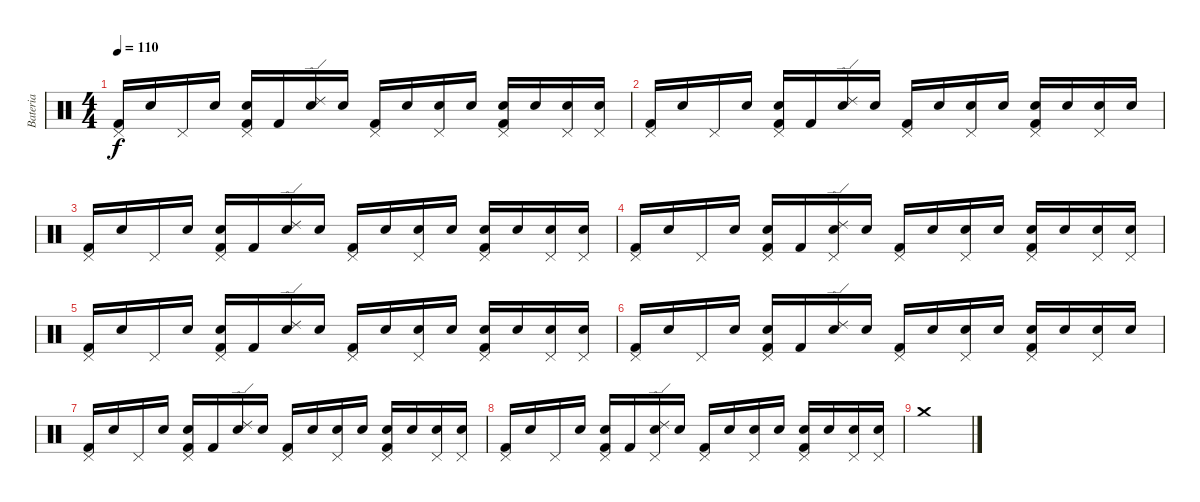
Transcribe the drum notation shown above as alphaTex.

\track ("Bateria" "Bateria") {instrument percussion}
\staff {score}
\articulation defaults
\ts (4 4)
\tempo 110
\clef neutral
\ks c
("Kick (hit) 2" "Pedal Hi-Hat (hit)").16{dy f} "Snare (hit)".16 "Pedal Hi-Hat (hit)".16 "Snare (hit)".16 ("Kick (hit) 2" "Pedal Hi-Hat (hit)" "Electric Snare (hit)").16 "Kick (hit) 2".16 ("Snare (hit)" "Ride (edge) 2").16 "Snare (hit)".16 ("Kick (hit) 2" "Pedal Hi-Hat (hit)").16 "Snare (hit)".16 ("Snare (hit)" "Pedal Hi-Hat (hit)").16 "Snare (hit)".16 ("Kick (hit) 2" "Pedal Hi-Hat (hit)" "Electric Snare (hit)").16 "Snare (hit)".16 ("Snare (hit)" "Pedal Hi-Hat (hit)").16 ("Snare (hit)" "Pedal Hi-Hat (hit)").16 |
("Kick (hit) 2" "Pedal Hi-Hat (hit)").16 "Snare (hit)".16 "Pedal Hi-Hat (hit)".16 "Snare (hit)".16 ("Kick (hit) 2" "Pedal Hi-Hat (hit)" "Electric Snare (hit)").16 "Kick (hit) 2".16 ("Snare (hit)" "Ride (edge) 2").16 "Snare (hit)".16 ("Kick (hit) 2" "Pedal Hi-Hat (hit)").16 "Snare (hit)".16 ("Snare (hit)" "Pedal Hi-Hat (hit)").16 "Snare (hit)".16 ("Kick (hit) 2" "Pedal Hi-Hat (hit)" "Electric Snare (hit)").16 "Snare (hit)".16 ("Snare (hit)" "Pedal Hi-Hat (hit)").16 "Snare (hit)".16 |
("Kick (hit) 2" "Pedal Hi-Hat (hit)").16 "Snare (hit)".16 "Pedal Hi-Hat (hit)".16 "Snare (hit)".16 ("Kick (hit) 2" "Pedal Hi-Hat (hit)" "Electric Snare (hit)").16 "Kick (hit) 2".16 ("Snare (hit)" "Ride (edge) 2").16 "Snare (hit)".16 ("Kick (hit) 2" "Pedal Hi-Hat (hit)").16 "Snare (hit)".16 ("Snare (hit)" "Pedal Hi-Hat (hit)").16 "Snare (hit)".16 ("Kick (hit) 2" "Pedal Hi-Hat (hit)" "Electric Snare (hit)").16 "Snare (hit)".16 ("Snare (hit)" "Pedal Hi-Hat (hit)").16 ("Snare (hit)" "Pedal Hi-Hat (hit)").16 |
("Kick (hit) 2" "Pedal Hi-Hat (hit)").16 "Snare (hit)".16 "Pedal Hi-Hat (hit)".16 "Snare (hit)".16 ("Kick (hit) 2" "Pedal Hi-Hat (hit)" "Electric Snare (hit)").16 "Kick (hit) 2".16 ("Snare (hit)" "Pedal Hi-Hat (hit)" "Ride (edge) 2").16 "Snare (hit)".16 ("Kick (hit) 2" "Pedal Hi-Hat (hit)").16 "Snare (hit)".16 ("Snare (hit)" "Pedal Hi-Hat (hit)").16 "Snare (hit)".16 ("Kick (hit) 2" "Pedal Hi-Hat (hit)" "Electric Snare (hit)").16 "Snare (hit)".16 ("Snare (hit)" "Pedal Hi-Hat (hit)").16 ("Snare (hit)" "Pedal Hi-Hat (hit)").16 |
("Kick (hit) 2" "Pedal Hi-Hat (hit)").16 "Snare (hit)".16 "Pedal Hi-Hat (hit)".16 "Snare (hit)".16 ("Kick (hit) 2" "Pedal Hi-Hat (hit)" "Electric Snare (hit)").16 "Kick (hit) 2".16 ("Snare (hit)" "Ride (edge) 2").16 "Snare (hit)".16 ("Kick (hit) 2" "Pedal Hi-Hat (hit)").16 "Snare (hit)".16 ("Snare (hit)" "Pedal Hi-Hat (hit)").16 "Snare (hit)".16 ("Kick (hit) 2" "Pedal Hi-Hat (hit)" "Electric Snare (hit)").16 "Snare (hit)".16 ("Snare (hit)" "Pedal Hi-Hat (hit)").16 ("Snare (hit)" "Pedal Hi-Hat (hit)").16 |
("Kick (hit) 2" "Pedal Hi-Hat (hit)").16 "Snare (hit)".16 "Pedal Hi-Hat (hit)".16 "Snare (hit)".16 ("Kick (hit) 2" "Pedal Hi-Hat (hit)" "Electric Snare (hit)").16 "Kick (hit) 2".16 ("Snare (hit)" "Ride (edge) 2").16 "Snare (hit)".16 ("Kick (hit) 2" "Pedal Hi-Hat (hit)").16 "Snare (hit)".16 ("Snare (hit)" "Pedal Hi-Hat (hit)").16 "Snare (hit)".16 ("Kick (hit) 2" "Pedal Hi-Hat (hit)" "Electric Snare (hit)").16 "Snare (hit)".16 ("Snare (hit)" "Pedal Hi-Hat (hit)").16 "Snare (hit)".16 |
("Kick (hit) 2" "Pedal Hi-Hat (hit)").16 "Snare (hit)".16 "Pedal Hi-Hat (hit)".16 "Snare (hit)".16 ("Kick (hit) 2" "Pedal Hi-Hat (hit)" "Electric Snare (hit)").16 "Kick (hit) 2".16 ("Snare (hit)" "Ride (edge) 2").16 "Snare (hit)".16 ("Kick (hit) 2" "Pedal Hi-Hat (hit)").16 "Snare (hit)".16 ("Snare (hit)" "Pedal Hi-Hat (hit)").16 "Snare (hit)".16 ("Kick (hit) 2" "Pedal Hi-Hat (hit)" "Electric Snare (hit)").16 "Snare (hit)".16 ("Snare (hit)" "Pedal Hi-Hat (hit)").16 ("Snare (hit)" "Pedal Hi-Hat (hit)").16 |
("Kick (hit) 2" "Pedal Hi-Hat (hit)").16 "Snare (hit)".16 "Pedal Hi-Hat (hit)".16 "Snare (hit)".16 ("Kick (hit) 2" "Pedal Hi-Hat (hit)" "Electric Snare (hit)").16 "Kick (hit) 2".16 ("Snare (hit)" "Pedal Hi-Hat (hit)" "Ride (edge) 2").16 "Snare (hit)".16 ("Kick (hit) 2" "Pedal Hi-Hat (hit)").16 "Snare (hit)".16 ("Snare (hit)" "Pedal Hi-Hat (hit)").16 "Snare (hit)".16 ("Kick (hit) 2" "Pedal Hi-Hat (hit)" "Electric Snare (hit)").16 "Snare (hit)".16 ("Snare (hit)" "Pedal Hi-Hat (hit)").16 ("Snare (hit)" "Pedal Hi-Hat (hit)").16 |
"Crash medium (hit)".1
